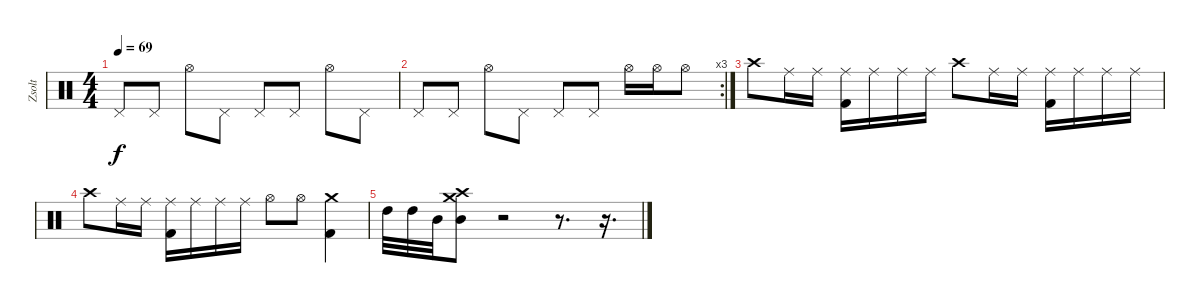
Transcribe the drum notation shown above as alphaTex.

\track ("Zsolt" "Zsolt") {instrument percussion}
\staff {score}
\articulation defaults
\ts (4 4)
\tempo 69
\clef neutral
\ks c "Pedal Hi-Hat (hit)".8{dy f} "Pedal Hi-Hat (hit)".8 "Hi-Hat (open)".8 "Pedal Hi-Hat (hit)".8 "Pedal Hi-Hat (hit)".8 "Pedal Hi-Hat (hit)".8 "Hi-Hat (open)".8 "Pedal Hi-Hat (hit)".8
|
\rc 3 "Pedal Hi-Hat (hit)".8 "Pedal Hi-Hat (hit)".8 "Hi-Hat (open)".8 "Pedal Hi-Hat (hit)".8 "Pedal Hi-Hat (hit)".8 "Pedal Hi-Hat (hit)".8 "Hi-Hat (open)".16 "Hi-Hat (open)".16 "Hi-Hat (open)".8
|
"Crash high (hit)".8 "Ride (middle)".16 "Ride (middle)".16 ("Ride (middle)" "Kick (hit) 2").16 "Ride (middle)".16 "Ride (middle)".16 "Ride (middle)".16 "Crash high (hit)".8 "Ride (middle)".16 "Ride (middle)".16 ("Ride (middle)" "Kick (hit) 2").16 "Ride (middle)".16 "Ride (middle)".16 "Ride (middle)".16 |
"Crash high (hit)".8 "Ride (middle)".16 "Ride (middle)".16 ("Ride (middle)" "Kick (hit) 2").16 "Ride (middle)".16 "Ride (middle)".16 "Ride (middle)".16 "Hi-Hat (open)".8 "Hi-Hat (open)".8 ("Crash medium (hit)" "Kick (hit) 2").4 |
"High Tom (hit)".32 "High Tom (hit)".32 "Mid Tom (hit)".32 ("Crash high (hit)" "Mid Tom (hit)" "Crash medium (hit)").8 r.2 r.8{d} r.16{d}
